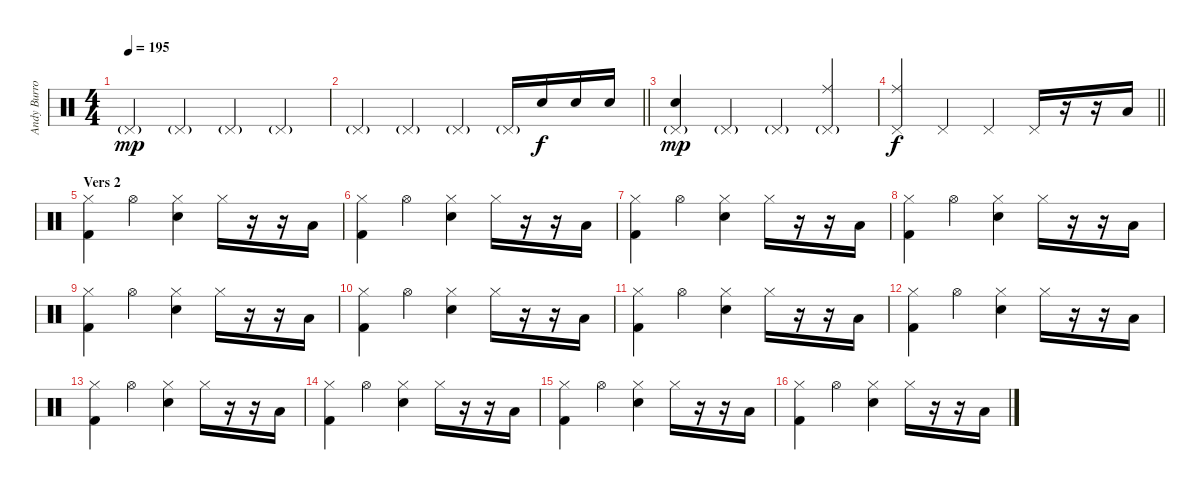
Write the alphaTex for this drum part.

\track ("Andy Burrows (drums)" "Andy Burro") {instrument percussion}
\staff {score}
\articulation defaults
\ts (4 4)
\tempo 195
\clef neutral
\ks c "Pedal Hi-Hat (hit)"{g}.4{dy mp} "Pedal Hi-Hat (hit)"{g}.4 "Pedal Hi-Hat (hit)"{g}.4 "Pedal Hi-Hat (hit)"{g}.4
|
\barLineRight lightlight "Pedal Hi-Hat (hit)"{g}.4 "Pedal Hi-Hat (hit)"{g}.4 "Pedal Hi-Hat (hit)"{g}.4 "Pedal Hi-Hat (hit)"{g}.16 "Electric Snare (hit)".16{dy f} "Electric Snare (hit)".16 "Electric Snare (hit)".16
|
("Pedal Hi-Hat (hit)"{g} "Electric Snare (hit)").4{dy mp} "Pedal Hi-Hat (hit)"{g}.4 "Pedal Hi-Hat (hit)"{g}.4 ("Pedal Hi-Hat (hit)"{g} "Ride (middle)").4 |
\barLineRight lightlight
("Pedal Hi-Hat (hit)" "Ride (middle)").4{dy f} "Pedal Hi-Hat (hit)".4 "Pedal Hi-Hat (hit)".4 "Pedal Hi-Hat (hit)".16 r.16 r.16 "Low Floor Tom (hit)".16 |
\section ("" "Vers 2")
("Hi-Hat (closed)" "Kick (hit) 2").4 "Hi-Hat (open)".4 ("Hi-Hat (closed)" "Electric Snare (hit)").4 "Hi-Hat (closed)".16 r.16 r.16 "Low Floor Tom (hit)".16 |
("Hi-Hat (closed)" "Kick (hit) 2").4 "Hi-Hat (open)".4 ("Hi-Hat (closed)" "Electric Snare (hit)").4 "Hi-Hat (closed)".16 r.16 r.16 "Low Floor Tom (hit)".16 |
("Hi-Hat (closed)" "Kick (hit) 2").4 "Hi-Hat (open)".4 ("Hi-Hat (closed)" "Electric Snare (hit)").4 "Hi-Hat (closed)".16 r.16 r.16 "Low Floor Tom (hit)".16 |
("Hi-Hat (closed)" "Kick (hit) 2").4 "Hi-Hat (open)".4 ("Hi-Hat (closed)" "Electric Snare (hit)").4 "Hi-Hat (closed)".16 r.16 r.16 "Low Floor Tom (hit)".16 |
("Hi-Hat (closed)" "Kick (hit) 2").4 "Hi-Hat (open)".4 ("Hi-Hat (closed)" "Electric Snare (hit)").4 "Hi-Hat (closed)".16 r.16 r.16 "Low Floor Tom (hit)".16 |
("Hi-Hat (closed)" "Kick (hit) 2").4 "Hi-Hat (open)".4 ("Hi-Hat (closed)" "Electric Snare (hit)").4 "Hi-Hat (closed)".16 r.16 r.16 "Low Floor Tom (hit)".16 |
("Hi-Hat (closed)" "Kick (hit) 2").4 "Hi-Hat (open)".4 ("Hi-Hat (closed)" "Electric Snare (hit)").4 "Hi-Hat (closed)".16 r.16 r.16 "Low Floor Tom (hit)".16 |
("Hi-Hat (closed)" "Kick (hit) 2").4 "Hi-Hat (open)".4 ("Hi-Hat (closed)" "Electric Snare (hit)").4 "Hi-Hat (closed)".16 r.16 r.16 "Low Floor Tom (hit)".16 |
("Hi-Hat (closed)" "Kick (hit) 2").4 "Hi-Hat (open)".4 ("Hi-Hat (closed)" "Electric Snare (hit)").4 "Hi-Hat (closed)".16 r.16 r.16 "Low Floor Tom (hit)".16 |
("Hi-Hat (closed)" "Kick (hit) 2").4 "Hi-Hat (open)".4 ("Hi-Hat (closed)" "Electric Snare (hit)").4 "Hi-Hat (closed)".16 r.16 r.16 "Low Floor Tom (hit)".16 |
("Hi-Hat (closed)" "Kick (hit) 2").4 "Hi-Hat (open)".4 ("Hi-Hat (closed)" "Electric Snare (hit)").4 "Hi-Hat (closed)".16 r.16 r.16 "Low Floor Tom (hit)".16 |
("Hi-Hat (closed)" "Kick (hit) 2").4 "Hi-Hat (open)".4 ("Hi-Hat (closed)" "Electric Snare (hit)").4 "Hi-Hat (closed)".16 r.16 r.16 "Low Floor Tom (hit)".16
